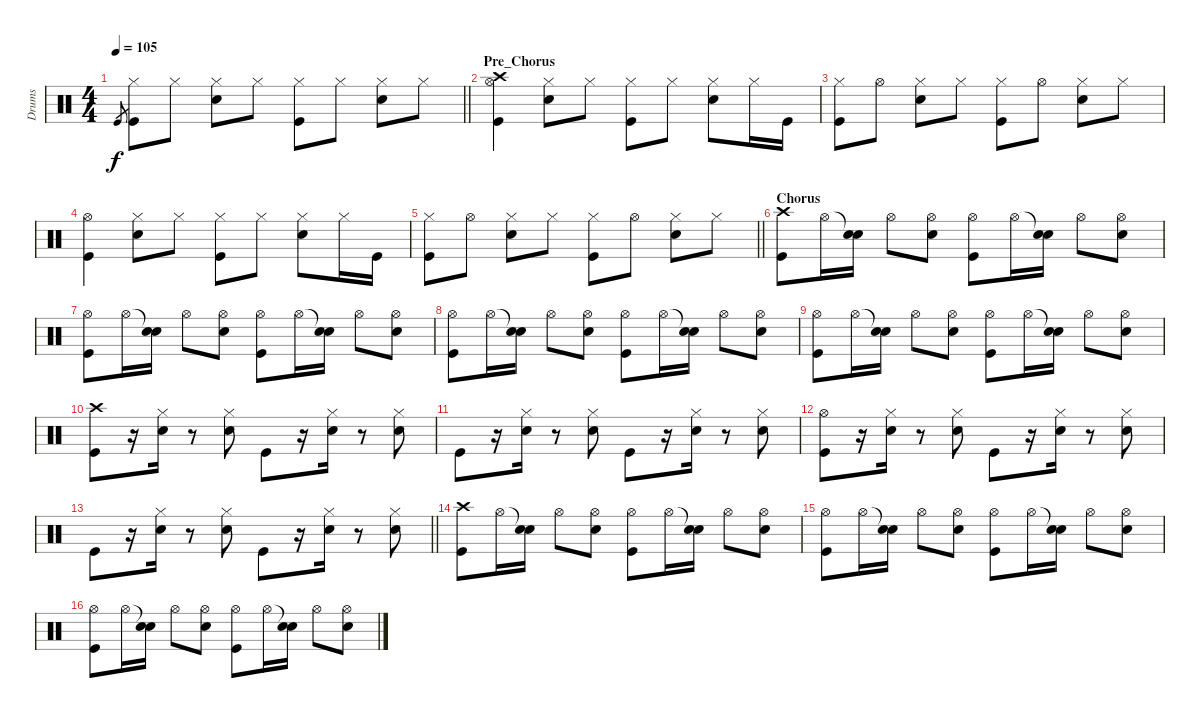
\track ("Drums" "Drums") {instrument percussion}
\staff {score}
\articulation defaults
\ts (4 4)
\tempo 105
\clef neutral
\barLineRight lightlight
\ks c "Kick (hit)".8{gr dy f}
("Hi-Hat (closed)" "Kick (hit)").8 "Hi-Hat (closed)".8 ("Hi-Hat (closed)" "Electric Snare (hit)").8 "Hi-Hat (closed)".8 ("Hi-Hat (closed)" "Kick (hit)").8 "Hi-Hat (closed)".8 ("Hi-Hat (closed)" "Electric Snare (hit)").8 "Hi-Hat (closed)".8 |
\section ("" "Pre_Chorus")
("Crash high (hit)" "Hi-Hat (open)" "Kick (hit)").4 ("Hi-Hat (closed)" "Electric Snare (hit)").8 "Hi-Hat (closed)".8 ("Hi-Hat (closed)" "Kick (hit)").8 "Hi-Hat (closed)".8 ("Hi-Hat (closed)" "Electric Snare (hit)").8 "Hi-Hat (closed)".16 "Kick (hit)".16 |
("Hi-Hat (closed)" "Kick (hit)").8 "Hi-Hat (open)".8 ("Hi-Hat (closed)" "Electric Snare (hit)").8 "Hi-Hat (closed)".8 ("Hi-Hat (closed)" "Kick (hit)").8 "Hi-Hat (open)".8 ("Hi-Hat (closed)" "Electric Snare (hit)").8 "Hi-Hat (closed)".8 |
("Hi-Hat (open)" "Kick (hit)").4 ("Hi-Hat (closed)" "Electric Snare (hit)").8 "Hi-Hat (closed)".8 ("Hi-Hat (closed)" "Kick (hit)").8 "Hi-Hat (closed)".8 ("Hi-Hat (closed)" "Electric Snare (hit)").8 "Hi-Hat (closed)".16 "Kick (hit)".16 |
\barLineRight lightlight
("Hi-Hat (closed)" "Kick (hit)").8 "Hi-Hat (open)".8 ("Hi-Hat (closed)" "Electric Snare (hit)").8 "Hi-Hat (closed)".8 ("Hi-Hat (closed)" "Kick (hit)").8 "Hi-Hat (open)".8 ("Hi-Hat (closed)" "Electric Snare (hit)").8 "Hi-Hat (closed)".8 |
\section ("" "Chorus")
("Crash high (hit)" "Kick (hit)").8 "Hi-Hat (open)".16 ("Snare (hit)"{t} "Electric Snare (hit)").16 "Hi-Hat (open)".8 ("Hi-Hat (open)" "Electric Snare (hit)").8 ("Hi-Hat (open)" "Kick (hit)").8 "Hi-Hat (open)".16 ("Snare (hit)"{t} "Electric Snare (hit)").16 "Hi-Hat (open)".8 ("Hi-Hat (open)" "Electric Snare (hit)").8 |
("Hi-Hat (open)" "Kick (hit)").8 "Hi-Hat (open)".16 ("Snare (hit)"{t} "Electric Snare (hit)").16 "Hi-Hat (open)".8 ("Hi-Hat (open)" "Electric Snare (hit)").8 ("Hi-Hat (open)" "Kick (hit)").8 "Hi-Hat (open)".16 ("Snare (hit)"{t} "Electric Snare (hit)").16 "Hi-Hat (open)".8 ("Hi-Hat (open)" "Electric Snare (hit)").8 |
("Hi-Hat (open)" "Kick (hit)").8 "Hi-Hat (open)".16 ("Snare (hit)"{t} "Electric Snare (hit)").16 "Hi-Hat (open)".8 ("Hi-Hat (open)" "Electric Snare (hit)").8 ("Hi-Hat (open)" "Kick (hit)").8 "Hi-Hat (open)".16 ("Snare (hit)"{t} "Electric Snare (hit)").16 "Hi-Hat (open)".8 ("Hi-Hat (open)" "Electric Snare (hit)").8 |
("Hi-Hat (open)" "Kick (hit)").8 "Hi-Hat (open)".16 ("Snare (hit)"{t} "Electric Snare (hit)").16 "Hi-Hat (open)".8 ("Hi-Hat (open)" "Electric Snare (hit)").8 ("Hi-Hat (open)" "Kick (hit)").8 "Hi-Hat (open)".16 ("Snare (hit)"{t} "Electric Snare (hit)").16 "Hi-Hat (open)".8 ("Hi-Hat (open)" "Electric Snare (hit)").8 |
("Crash high (hit)" "Kick (hit)").8 r.16 ("Hi-Hat (closed)" "Electric Snare (hit)").16 r.8 ("Hi-Hat (closed)" "Electric Snare (hit)").8 "Kick (hit)".8 r.16 ("Hi-Hat (closed)" "Electric Snare (hit)").16 r.8 ("Hi-Hat (closed)" "Electric Snare (hit)").8 |
"Kick (hit)".8 r.16 ("Hi-Hat (closed)" "Electric Snare (hit)").16 r.8 ("Hi-Hat (closed)" "Electric Snare (hit)").8 "Kick (hit)".8 r.16 ("Hi-Hat (closed)" "Electric Snare (hit)").16 r.8 ("Hi-Hat (closed)" "Electric Snare (hit)").8 |
("Hi-Hat (open)" "Kick (hit)").8 r.16 ("Hi-Hat (closed)" "Electric Snare (hit)").16 r.8 ("Hi-Hat (closed)" "Electric Snare (hit)").8 "Kick (hit)".8 r.16 ("Hi-Hat (closed)" "Electric Snare (hit)").16 r.8 ("Hi-Hat (closed)" "Electric Snare (hit)").8 |
\barLineRight lightlight "Kick (hit)".8
r.16 ("Hi-Hat (closed)" "Electric Snare (hit)").16 r.8 ("Hi-Hat (closed)" "Electric Snare (hit)").8 "Kick (hit)".8 r.16 ("Hi-Hat (closed)" "Electric Snare (hit)").16 r.8 ("Hi-Hat (closed)" "Electric Snare (hit)").8 |
("Crash high (hit)" "Kick (hit)").8 "Hi-Hat (open)".16 ("Snare (hit)"{t} "Electric Snare (hit)").16 "Hi-Hat (open)".8 ("Hi-Hat (open)" "Electric Snare (hit)").8 ("Hi-Hat (open)" "Kick (hit)").8 "Hi-Hat (open)".16 ("Snare (hit)"{t} "Electric Snare (hit)").16 "Hi-Hat (open)".8 ("Hi-Hat (open)" "Electric Snare (hit)").8 |
("Hi-Hat (open)" "Kick (hit)").8 "Hi-Hat (open)".16 ("Snare (hit)"{t} "Electric Snare (hit)").16 "Hi-Hat (open)".8 ("Hi-Hat (open)" "Electric Snare (hit)").8 ("Hi-Hat (open)" "Kick (hit)").8 "Hi-Hat (open)".16 ("Snare (hit)"{t} "Electric Snare (hit)").16 "Hi-Hat (open)".8 ("Hi-Hat (open)" "Electric Snare (hit)").8 |
("Hi-Hat (open)" "Kick (hit)").8 "Hi-Hat (open)".16 ("Snare (hit)"{t} "Electric Snare (hit)").16 "Hi-Hat (open)".8 ("Hi-Hat (open)" "Electric Snare (hit)").8 ("Hi-Hat (open)" "Kick (hit)").8 "Hi-Hat (open)".16 ("Snare (hit)"{t} "Electric Snare (hit)").16 "Hi-Hat (open)".8 ("Hi-Hat (open)" "Electric Snare (hit)").8
